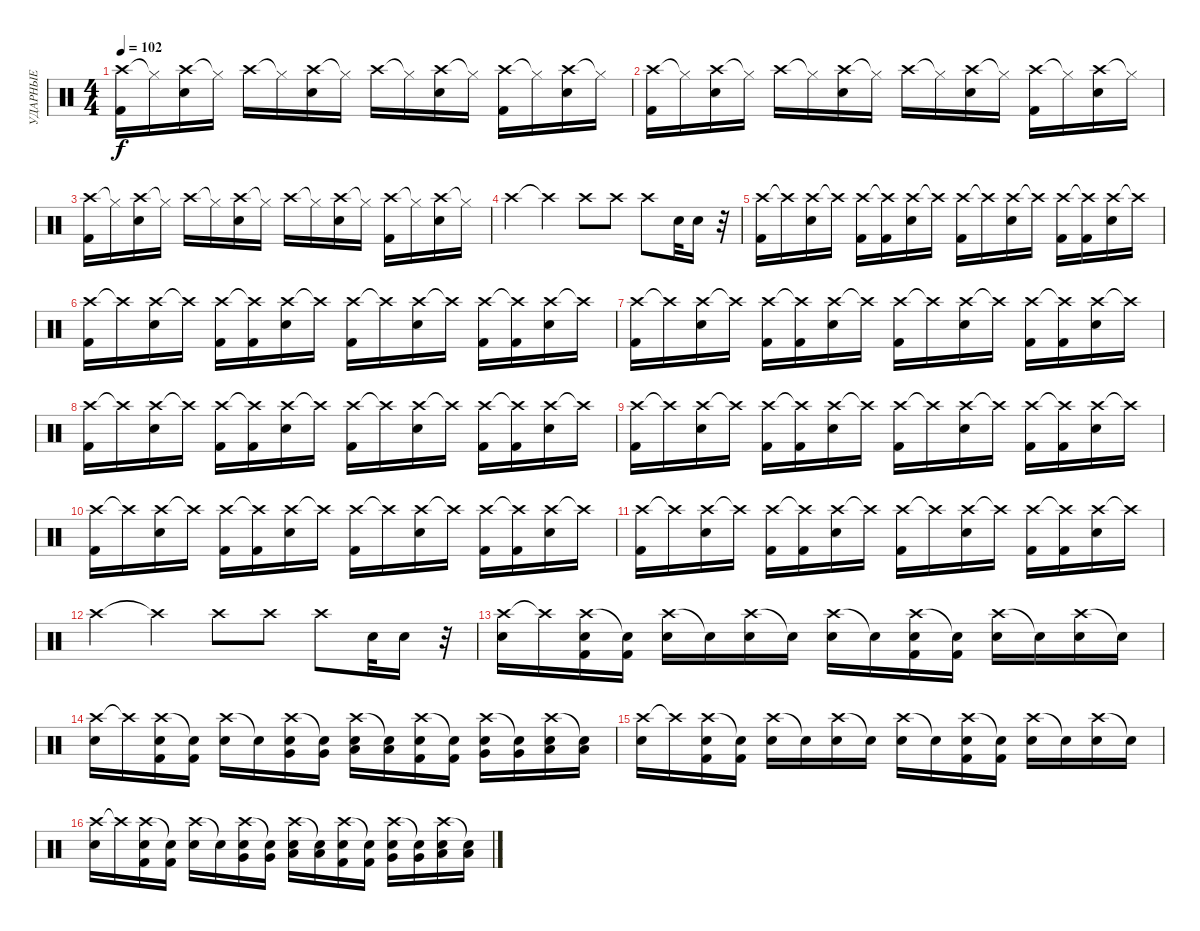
\track ("УДАРНЫЕ" "УДАРНЫЕ") {instrument percussion}
\staff {score}
\articulation defaults
\ts (4 4)
\tempo 102
\clef neutral
\ks c
("Crash high (hit)" "Kick (hit) 2").16{dy f} "Hi-Hat (closed)"{t}.16 ("Crash high (hit)" "Electric Snare (hit)").16 "Hi-Hat (closed)"{t}.16 "Crash high (hit)".16 "Hi-Hat (closed)"{t}.16 ("Crash high (hit)" "Electric Snare (hit)").16 "Hi-Hat (closed)"{t}.16 "Crash high (hit)".16 "Hi-Hat (closed)"{t}.16 ("Crash high (hit)" "Electric Snare (hit)").16 "Hi-Hat (closed)"{t}.16 ("Crash high (hit)" "Kick (hit) 2").16 "Hi-Hat (closed)"{t}.16 ("Crash high (hit)" "Electric Snare (hit)").16 "Hi-Hat (closed)"{t}.16 |
("Crash high (hit)" "Kick (hit) 2").16 "Hi-Hat (closed)"{t}.16 ("Crash high (hit)" "Electric Snare (hit)").16 "Hi-Hat (closed)"{t}.16 "Crash high (hit)".16 "Hi-Hat (closed)"{t}.16 ("Crash high (hit)" "Electric Snare (hit)").16 "Hi-Hat (closed)"{t}.16 "Crash high (hit)".16 "Hi-Hat (closed)"{t}.16 ("Crash high (hit)" "Electric Snare (hit)").16 "Hi-Hat (closed)"{t}.16 ("Crash high (hit)" "Kick (hit) 2").16 "Hi-Hat (closed)"{t}.16 ("Crash high (hit)" "Electric Snare (hit)").16 "Hi-Hat (closed)"{t}.16 |
("Crash high (hit)" "Kick (hit) 2").16 "Hi-Hat (closed)"{t}.16 ("Crash high (hit)" "Electric Snare (hit)").16 "Hi-Hat (closed)"{t}.16 "Crash high (hit)".16 "Hi-Hat (closed)"{t}.16 ("Crash high (hit)" "Electric Snare (hit)").16 "Hi-Hat (closed)"{t}.16 "Crash high (hit)".16 "Hi-Hat (closed)"{t}.16 ("Crash high (hit)" "Electric Snare (hit)").16 "Hi-Hat (closed)"{t}.16 ("Crash high (hit)" "Kick (hit) 2").16 "Hi-Hat (closed)"{t}.16 ("Crash high (hit)" "Electric Snare (hit)").16 "Hi-Hat (closed)"{t}.16 |
"Crash high (hit)".4 "Crash high (hit)"{t}.4 "Crash high (hit)".8 "Crash high (hit)".8 "Crash high (hit)".8 "Electric Snare (hit)".32 "Electric Snare (hit)".16 r.32 |
("Crash high (hit)" "Kick (hit) 2").16 "Crash high (hit)"{t}.16 ("Crash high (hit)" "Electric Snare (hit)").16 "Crash high (hit)"{t}.16 ("Crash high (hit)" "Kick (hit) 2").16 ("Crash high (hit)"{t} "Kick (hit) 2").16 ("Crash high (hit)" "Electric Snare (hit)").16 "Crash high (hit)"{t}.16 ("Crash high (hit)" "Kick (hit) 2").16 "Crash high (hit)"{t}.16 ("Crash high (hit)" "Electric Snare (hit)").16 "Crash high (hit)"{t}.16 ("Crash high (hit)" "Kick (hit) 2").16 ("Crash high (hit)"{t} "Kick (hit) 2").16 ("Crash high (hit)" "Electric Snare (hit)").16 "Crash high (hit)"{t}.16 |
("Crash high (hit)" "Kick (hit) 2").16 "Crash high (hit)"{t}.16 ("Crash high (hit)" "Electric Snare (hit)").16 "Crash high (hit)"{t}.16 ("Crash high (hit)" "Kick (hit) 2").16 ("Crash high (hit)"{t} "Kick (hit) 2").16 ("Crash high (hit)" "Electric Snare (hit)").16 "Crash high (hit)"{t}.16 ("Crash high (hit)" "Kick (hit) 2").16 "Crash high (hit)"{t}.16 ("Crash high (hit)" "Electric Snare (hit)").16 "Crash high (hit)"{t}.16 ("Crash high (hit)" "Kick (hit) 2").16 ("Crash high (hit)"{t} "Kick (hit) 2").16 ("Crash high (hit)" "Electric Snare (hit)").16 "Crash high (hit)"{t}.16 |
("Crash high (hit)" "Kick (hit) 2").16 "Crash high (hit)"{t}.16 ("Crash high (hit)" "Electric Snare (hit)").16 "Crash high (hit)"{t}.16 ("Crash high (hit)" "Kick (hit) 2").16 ("Crash high (hit)"{t} "Kick (hit) 2").16 ("Crash high (hit)" "Electric Snare (hit)").16 "Crash high (hit)"{t}.16 ("Crash high (hit)" "Kick (hit) 2").16 "Crash high (hit)"{t}.16 ("Crash high (hit)" "Electric Snare (hit)").16 "Crash high (hit)"{t}.16 ("Crash high (hit)" "Kick (hit) 2").16 ("Crash high (hit)"{t} "Kick (hit) 2").16 ("Crash high (hit)" "Electric Snare (hit)").16 "Crash high (hit)"{t}.16 |
("Crash high (hit)" "Kick (hit) 2").16 "Crash high (hit)"{t}.16 ("Crash high (hit)" "Electric Snare (hit)").16 "Crash high (hit)"{t}.16 ("Crash high (hit)" "Kick (hit) 2").16 ("Crash high (hit)"{t} "Kick (hit) 2").16 ("Crash high (hit)" "Electric Snare (hit)").16 "Crash high (hit)"{t}.16 ("Crash high (hit)" "Kick (hit) 2").16 "Crash high (hit)"{t}.16 ("Crash high (hit)" "Electric Snare (hit)").16 "Crash high (hit)"{t}.16 ("Crash high (hit)" "Kick (hit) 2").16 ("Crash high (hit)"{t} "Kick (hit) 2").16 ("Crash high (hit)" "Electric Snare (hit)").16 "Crash high (hit)"{t}.16 |
("Crash high (hit)" "Kick (hit) 2").16 "Crash high (hit)"{t}.16 ("Crash high (hit)" "Electric Snare (hit)").16 "Crash high (hit)"{t}.16 ("Crash high (hit)" "Kick (hit) 2").16 ("Crash high (hit)"{t} "Kick (hit) 2").16 ("Crash high (hit)" "Electric Snare (hit)").16 "Crash high (hit)"{t}.16 ("Crash high (hit)" "Kick (hit) 2").16 "Crash high (hit)"{t}.16 ("Crash high (hit)" "Electric Snare (hit)").16 "Crash high (hit)"{t}.16 ("Crash high (hit)" "Kick (hit) 2").16 ("Crash high (hit)"{t} "Kick (hit) 2").16 ("Crash high (hit)" "Electric Snare (hit)").16 "Crash high (hit)"{t}.16 |
("Crash high (hit)" "Kick (hit) 2").16 "Crash high (hit)"{t}.16 ("Crash high (hit)" "Electric Snare (hit)").16 "Crash high (hit)"{t}.16 ("Crash high (hit)" "Kick (hit) 2").16 ("Crash high (hit)"{t} "Kick (hit) 2").16 ("Crash high (hit)" "Electric Snare (hit)").16 "Crash high (hit)"{t}.16 ("Crash high (hit)" "Kick (hit) 2").16 "Crash high (hit)"{t}.16 ("Crash high (hit)" "Electric Snare (hit)").16 "Crash high (hit)"{t}.16 ("Crash high (hit)" "Kick (hit) 2").16 ("Crash high (hit)"{t} "Kick (hit) 2").16 ("Crash high (hit)" "Electric Snare (hit)").16 "Crash high (hit)"{t}.16 |
("Crash high (hit)" "Kick (hit) 2").16 "Crash high (hit)"{t}.16 ("Crash high (hit)" "Electric Snare (hit)").16 "Crash high (hit)"{t}.16 ("Crash high (hit)" "Kick (hit) 2").16 ("Crash high (hit)"{t} "Kick (hit) 2").16 ("Crash high (hit)" "Electric Snare (hit)").16 "Crash high (hit)"{t}.16 ("Crash high (hit)" "Kick (hit) 2").16 "Crash high (hit)"{t}.16 ("Crash high (hit)" "Electric Snare (hit)").16 "Crash high (hit)"{t}.16 ("Crash high (hit)" "Kick (hit) 2").16 ("Crash high (hit)"{t} "Kick (hit) 2").16 ("Crash high (hit)" "Electric Snare (hit)").16 "Crash high (hit)"{t}.16 |
"Crash high (hit)".4 "Crash high (hit)"{t}.4 "Crash high (hit)".8 "Crash high (hit)".8 "Crash high (hit)".8 "Electric Snare (hit)".32 "Electric Snare (hit)".16 r.32 |
("Crash high (hit)" "Electric Snare (hit)").16 "Crash high (hit)"{t}.16 ("Crash high (hit)" "Kick (hit) 2" "Electric Snare (hit)").16 ("Snare (hit)"{t} "Kick (hit) 2").16 ("Crash high (hit)" "Electric Snare (hit)").16 "Snare (hit)"{t}.16 ("Crash high (hit)" "Electric Snare (hit)").16 "Snare (hit)"{t}.16 ("Crash high (hit)" "Electric Snare (hit)").16 "Snare (hit)"{t}.16 ("Crash high (hit)" "Kick (hit) 2" "Electric Snare (hit)").16 ("Snare (hit)"{t} "Kick (hit) 2").16 ("Crash high (hit)" "Electric Snare (hit)").16 "Snare (hit)"{t}.16 ("Crash high (hit)" "Electric Snare (hit)").16 "Snare (hit)"{t}.16 |
("Crash high (hit)" "Electric Snare (hit)").16 "Crash high (hit)"{t}.16 ("Crash high (hit)" "Kick (hit) 2" "Electric Snare (hit)").16 ("Snare (hit)"{t} "Kick (hit) 2").16 ("Crash high (hit)" "Electric Snare (hit)").16 "Snare (hit)"{t}.16 ("Crash high (hit)" "Very Low Tom (hit)" "Electric Snare (hit)").16 ("Snare (hit)"{t} "Very Low Tom (hit)").16 ("Crash high (hit)" "Low Tom (hit)" "Electric Snare (hit)").16 ("Snare (hit)"{t} "Low Tom (hit)").16 ("Crash high (hit)" "Kick (hit) 2" "Electric Snare (hit)").16 ("Snare (hit)"{t} "Kick (hit) 2").16 ("Crash high (hit)" "Very Low Tom (hit)" "Electric Snare (hit)").16 ("Snare (hit)"{t} "Very Low Tom (hit)").16 ("Crash high (hit)" "Low Tom (hit)" "Electric Snare (hit)").16 ("Snare (hit)"{t} "Low Tom (hit)").16 |
("Crash high (hit)" "Electric Snare (hit)").16 "Crash high (hit)"{t}.16 ("Crash high (hit)" "Kick (hit) 2" "Electric Snare (hit)").16 ("Snare (hit)"{t} "Kick (hit) 2").16 ("Crash high (hit)" "Electric Snare (hit)").16 "Snare (hit)"{t}.16 ("Crash high (hit)" "Electric Snare (hit)").16 "Snare (hit)"{t}.16 ("Crash high (hit)" "Electric Snare (hit)").16 "Snare (hit)"{t}.16 ("Crash high (hit)" "Kick (hit) 2" "Electric Snare (hit)").16 ("Snare (hit)"{t} "Kick (hit) 2").16 ("Crash high (hit)" "Electric Snare (hit)").16 "Snare (hit)"{t}.16 ("Crash high (hit)" "Electric Snare (hit)").16 "Snare (hit)"{t}.16 |
("Crash high (hit)" "Electric Snare (hit)").16 "Crash high (hit)"{t}.16 ("Crash high (hit)" "Kick (hit) 2" "Electric Snare (hit)").16 ("Snare (hit)"{t} "Kick (hit) 2").16 ("Crash high (hit)" "Electric Snare (hit)").16 "Snare (hit)"{t}.16 ("Crash high (hit)" "Very Low Tom (hit)" "Electric Snare (hit)").16 ("Snare (hit)"{t} "Very Low Tom (hit)").16 ("Crash high (hit)" "Low Tom (hit)" "Electric Snare (hit)").16 ("Snare (hit)"{t} "Low Tom (hit)").16 ("Crash high (hit)" "Kick (hit) 2" "Electric Snare (hit)").16 ("Snare (hit)"{t} "Kick (hit) 2").16 ("Crash high (hit)" "Very Low Tom (hit)" "Electric Snare (hit)").16 ("Snare (hit)"{t} "Very Low Tom (hit)").16 ("Crash high (hit)" "Low Tom (hit)" "Electric Snare (hit)").16 ("Snare (hit)"{t} "Low Tom (hit)").16
